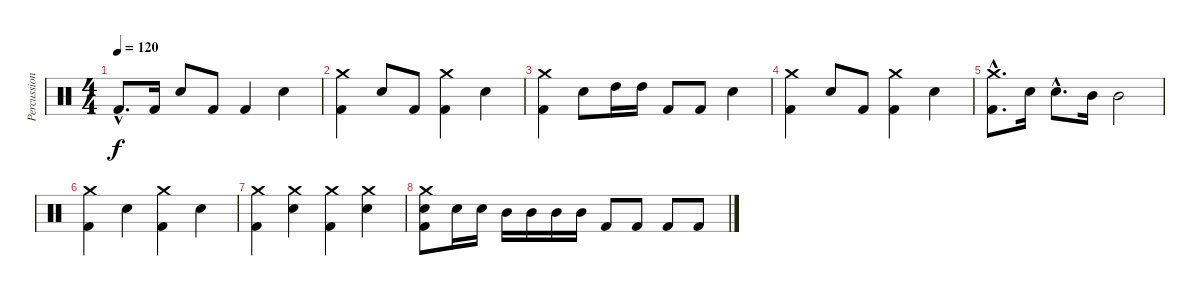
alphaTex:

\track ("Percussions" "Percussion") {instrument percussion}
\staff {score}
\articulation defaults
\ts (4 4)
\tempo 120
\clef neutral
\ks c "Kick (hit) 2"{hac}.8{d dy f} "Kick (hit) 2".16 "Snare (hit) 2".8 "Kick (hit) 2".8 "Kick (hit) 2".4 "Snare (hit) 2".4
|
("Crash medium (hit)" "Kick (hit) 2").4 "Snare (hit) 2".8 "Kick (hit) 2".8 ("Crash medium (hit)" "Kick (hit) 2").4 "Snare (hit) 2".4 |
("Crash medium (hit)" "Kick (hit) 2").4 "Snare (hit) 2".8 "High Tom (hit)".16 "High Tom (hit)".16 "Kick (hit) 2".8 "Kick (hit) 2".8 "Snare (hit) 2".4 |
("Crash medium (hit)" "Kick (hit) 2").4 "Snare (hit) 2".8 "Kick (hit) 2".8 ("Crash medium (hit)" "Kick (hit) 2").4 "Snare (hit) 2".4 |
("Crash medium (hit)"{hac} "Kick (hit) 2"{hac}).8{d} "Snare (hit) 2".16 "Snare (hit) 2"{hac}.8{d} "Mid Tom (hit)".16 "Mid Tom (hit)".2 |
("Crash medium (hit)" "Kick (hit) 2").4 "Snare (hit) 2".4 ("Crash medium (hit)" "Kick (hit) 2").4 "Snare (hit) 2".4 |
("Crash medium (hit)" "Kick (hit) 2").4 ("Crash medium (hit)" "Snare (hit) 2").4 ("Crash medium (hit)" "Kick (hit) 2").4 ("Crash medium (hit)" "Snare (hit) 2").4 |
("Crash medium (hit)" "Snare (hit) 2" "Kick (hit) 2").8 "Snare (hit) 2".16 "Snare (hit) 2".16 "Mid Tom (hit)".16 "Mid Tom (hit)".16 "Mid Tom (hit)".16 "Mid Tom (hit)".16 "Kick (hit) 2".8 "Kick (hit) 2".8 "Kick (hit) 2".8 "Kick (hit) 2".8
